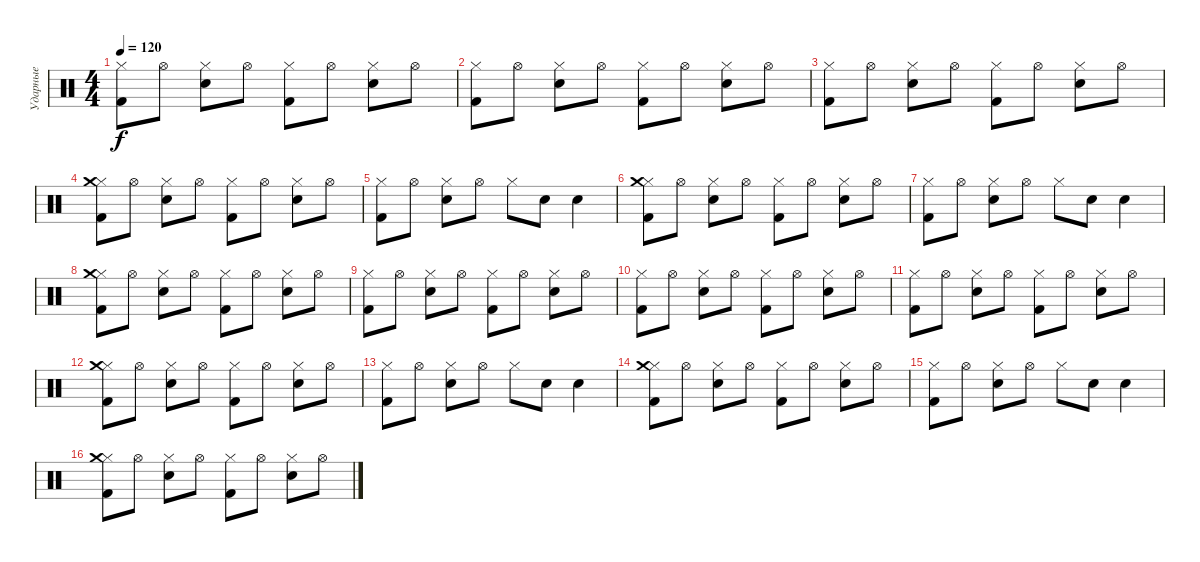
\track ("Ударные" "Ударные") {instrument percussion}
\staff {score}
\articulation defaults
\ts (4 4)
\tempo 120
\clef neutral
\ks c
("Hi-Hat (closed)" "Kick (hit) 2").8{dy f} "Hi-Hat (open)".8 ("Hi-Hat (closed)" "Snare (hit) 2").8 "Hi-Hat (open)".8 ("Hi-Hat (closed)" "Kick (hit) 2").8 "Hi-Hat (open)".8 ("Hi-Hat (closed)" "Snare (hit) 2").8 "Hi-Hat (open)".8 |
("Hi-Hat (closed)" "Kick (hit) 2").8 "Hi-Hat (open)".8 ("Hi-Hat (closed)" "Snare (hit) 2").8 "Hi-Hat (open)".8 ("Hi-Hat (closed)" "Kick (hit) 2").8 "Hi-Hat (open)".8 ("Hi-Hat (closed)" "Snare (hit) 2").8 "Hi-Hat (open)".8 |
("Hi-Hat (closed)" "Kick (hit) 2").8 "Hi-Hat (open)".8 ("Hi-Hat (closed)" "Snare (hit) 2").8 "Hi-Hat (open)".8 ("Hi-Hat (closed)" "Kick (hit) 2").8 "Hi-Hat (open)".8 ("Hi-Hat (closed)" "Snare (hit) 2").8 "Hi-Hat (open)".8 |
("Hi-Hat (closed)" "Kick (hit) 2" "Crash medium (hit)").8 "Hi-Hat (open)".8 ("Hi-Hat (closed)" "Snare (hit) 2").8 "Hi-Hat (open)".8 ("Hi-Hat (closed)" "Kick (hit) 2").8 "Hi-Hat (open)".8 ("Hi-Hat (closed)" "Snare (hit) 2").8 "Hi-Hat (open)".8 |
("Hi-Hat (closed)" "Kick (hit) 2").8 "Hi-Hat (open)".8 ("Hi-Hat (closed)" "Snare (hit) 2").8 "Hi-Hat (open)".8 "Hi-Hat (closed)".8 "Hand Clap (hit)".8 "Hand Clap (hit)".4 |
("Hi-Hat (closed)" "Kick (hit) 2" "Crash medium (hit)").8 "Hi-Hat (open)".8 ("Hi-Hat (closed)" "Snare (hit) 2").8 "Hi-Hat (open)".8 ("Hi-Hat (closed)" "Kick (hit) 2").8 "Hi-Hat (open)".8 ("Hi-Hat (closed)" "Snare (hit) 2").8 "Hi-Hat (open)".8 |
("Hi-Hat (closed)" "Kick (hit) 2").8 "Hi-Hat (open)".8 ("Hi-Hat (closed)" "Snare (hit) 2").8 "Hi-Hat (open)".8 "Hi-Hat (closed)".8 "Hand Clap (hit)".8 "Hand Clap (hit)".4 |
("Hi-Hat (closed)" "Kick (hit) 2" "Crash medium (hit)").8 "Hi-Hat (open)".8 ("Hi-Hat (closed)" "Snare (hit) 2").8 "Hi-Hat (open)".8 ("Hi-Hat (closed)" "Kick (hit) 2").8 "Hi-Hat (open)".8 ("Hi-Hat (closed)" "Snare (hit) 2").8 "Hi-Hat (open)".8 |
("Hi-Hat (closed)" "Kick (hit) 2").8 "Hi-Hat (open)".8 ("Hi-Hat (closed)" "Snare (hit) 2").8 "Hi-Hat (open)".8 ("Hi-Hat (closed)" "Kick (hit) 2").8 "Hi-Hat (open)".8 ("Hi-Hat (closed)" "Snare (hit) 2").8 "Hi-Hat (open)".8 |
("Hi-Hat (closed)" "Kick (hit) 2").8 "Hi-Hat (open)".8 ("Hi-Hat (closed)" "Snare (hit) 2").8 "Hi-Hat (open)".8 ("Hi-Hat (closed)" "Kick (hit) 2").8 "Hi-Hat (open)".8 ("Hi-Hat (closed)" "Snare (hit) 2").8 "Hi-Hat (open)".8 |
("Hi-Hat (closed)" "Kick (hit) 2").8 "Hi-Hat (open)".8 ("Hi-Hat (closed)" "Snare (hit) 2").8 "Hi-Hat (open)".8 ("Hi-Hat (closed)" "Kick (hit) 2").8 "Hi-Hat (open)".8 ("Hi-Hat (closed)" "Snare (hit) 2").8 "Hi-Hat (open)".8 |
("Hi-Hat (closed)" "Kick (hit) 2" "Crash medium (hit)").8 "Hi-Hat (open)".8 ("Hi-Hat (closed)" "Snare (hit) 2").8 "Hi-Hat (open)".8 ("Hi-Hat (closed)" "Kick (hit) 2").8 "Hi-Hat (open)".8 ("Hi-Hat (closed)" "Snare (hit) 2").8 "Hi-Hat (open)".8 |
("Hi-Hat (closed)" "Kick (hit) 2").8 "Hi-Hat (open)".8 ("Hi-Hat (closed)" "Snare (hit) 2").8 "Hi-Hat (open)".8 "Hi-Hat (closed)".8 "Hand Clap (hit)".8 "Hand Clap (hit)".4 |
("Hi-Hat (closed)" "Kick (hit) 2" "Crash medium (hit)").8 "Hi-Hat (open)".8 ("Hi-Hat (closed)" "Snare (hit) 2").8 "Hi-Hat (open)".8 ("Hi-Hat (closed)" "Kick (hit) 2").8 "Hi-Hat (open)".8 ("Hi-Hat (closed)" "Snare (hit) 2").8 "Hi-Hat (open)".8 |
("Hi-Hat (closed)" "Kick (hit) 2").8 "Hi-Hat (open)".8 ("Hi-Hat (closed)" "Snare (hit) 2").8 "Hi-Hat (open)".8 "Hi-Hat (closed)".8 "Hand Clap (hit)".8 "Hand Clap (hit)".4 |
("Hi-Hat (closed)" "Kick (hit) 2" "Crash medium (hit)").8 "Hi-Hat (open)".8 ("Hi-Hat (closed)" "Snare (hit) 2").8 "Hi-Hat (open)".8 ("Hi-Hat (closed)" "Kick (hit) 2").8 "Hi-Hat (open)".8 ("Hi-Hat (closed)" "Snare (hit) 2").8 "Hi-Hat (open)".8
